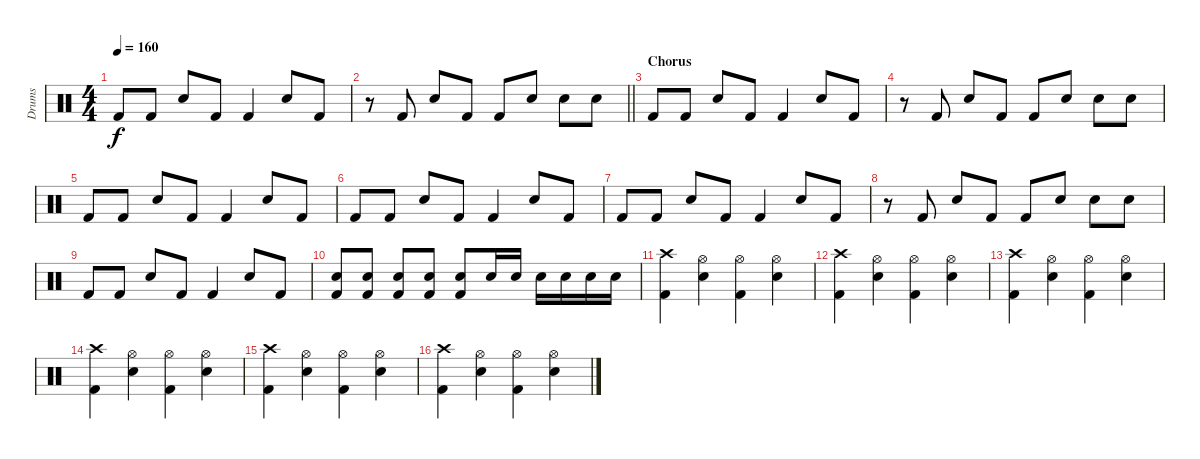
\track ("Drums" "Drums") {instrument percussion}
\staff {score}
\articulation defaults
\ts (4 4)
\tempo 160
\clef neutral
\ks c "Kick (hit) 2".8{dy f} "Kick (hit) 2".8 "Electric Snare (hit)".8 "Kick (hit) 2".8 "Kick (hit) 2".4 "Electric Snare (hit)".8 "Kick (hit) 2".8
|
\barLineRight lightlight
r.8 "Kick (hit) 2".8 "Electric Snare (hit)".8 "Kick (hit) 2".8 "Kick (hit) 2".8 "Electric Snare (hit)".8 "Electric Snare (hit)".8 "Electric Snare (hit)".8 |
\section ("" "Chorus")
"Kick (hit) 2".8 "Kick (hit) 2".8 "Electric Snare (hit)".8 "Kick (hit) 2".8 "Kick (hit) 2".4 "Electric Snare (hit)".8 "Kick (hit) 2".8 |
r.8 "Kick (hit) 2".8 "Electric Snare (hit)".8 "Kick (hit) 2".8 "Kick (hit) 2".8 "Electric Snare (hit)".8 "Electric Snare (hit)".8 "Electric Snare (hit)".8 |
"Kick (hit) 2".8 "Kick (hit) 2".8 "Electric Snare (hit)".8 "Kick (hit) 2".8 "Kick (hit) 2".4 "Electric Snare (hit)".8 "Kick (hit) 2".8 |
"Kick (hit) 2".8 "Kick (hit) 2".8 "Electric Snare (hit)".8 "Kick (hit) 2".8 "Kick (hit) 2".4 "Electric Snare (hit)".8 "Kick (hit) 2".8 |
"Kick (hit) 2".8 "Kick (hit) 2".8 "Electric Snare (hit)".8 "Kick (hit) 2".8 "Kick (hit) 2".4 "Electric Snare (hit)".8 "Kick (hit) 2".8 |
r.8 "Kick (hit) 2".8 "Electric Snare (hit)".8 "Kick (hit) 2".8 "Kick (hit) 2".8 "Electric Snare (hit)".8 "Electric Snare (hit)".8 "Electric Snare (hit)".8 |
"Kick (hit) 2".8 "Kick (hit) 2".8 "Electric Snare (hit)".8 "Kick (hit) 2".8 "Kick (hit) 2".4 "Electric Snare (hit)".8 "Kick (hit) 2".8 |
("Electric Snare (hit)" "Kick (hit) 2").8 ("Electric Snare (hit)" "Kick (hit) 2").8 ("Electric Snare (hit)" "Kick (hit) 2").8 ("Electric Snare (hit)" "Kick (hit) 2").8 ("Electric Snare (hit)" "Kick (hit) 2").8 "Electric Snare (hit)".16 "Electric Snare (hit)".16 "Electric Snare (hit)".16 "Electric Snare (hit)".16 "Electric Snare (hit)".16 "Electric Snare (hit)".16 |
("Crash high (hit)" "Kick (hit) 2").4 ("Hi-Hat (open)" "Electric Snare (hit)").4 ("Hi-Hat (open)" "Kick (hit) 2").4 ("Hi-Hat (open)" "Electric Snare (hit)").4 |
("Crash high (hit)" "Kick (hit) 2").4 ("Hi-Hat (open)" "Electric Snare (hit)").4 ("Hi-Hat (open)" "Kick (hit) 2").4 ("Hi-Hat (open)" "Electric Snare (hit)").4 |
("Crash high (hit)" "Kick (hit) 2").4 ("Hi-Hat (open)" "Electric Snare (hit)").4 ("Hi-Hat (open)" "Kick (hit) 2").4 ("Hi-Hat (open)" "Electric Snare (hit)").4 |
("Crash high (hit)" "Kick (hit) 2").4 ("Hi-Hat (open)" "Electric Snare (hit)").4 ("Hi-Hat (open)" "Kick (hit) 2").4 ("Hi-Hat (open)" "Electric Snare (hit)").4 |
("Crash high (hit)" "Kick (hit) 2").4 ("Hi-Hat (open)" "Electric Snare (hit)").4 ("Hi-Hat (open)" "Kick (hit) 2").4 ("Hi-Hat (open)" "Electric Snare (hit)").4 |
("Crash high (hit)" "Kick (hit) 2").4 ("Hi-Hat (open)" "Electric Snare (hit)").4 ("Hi-Hat (open)" "Kick (hit) 2").4 ("Hi-Hat (open)" "Electric Snare (hit)").4
